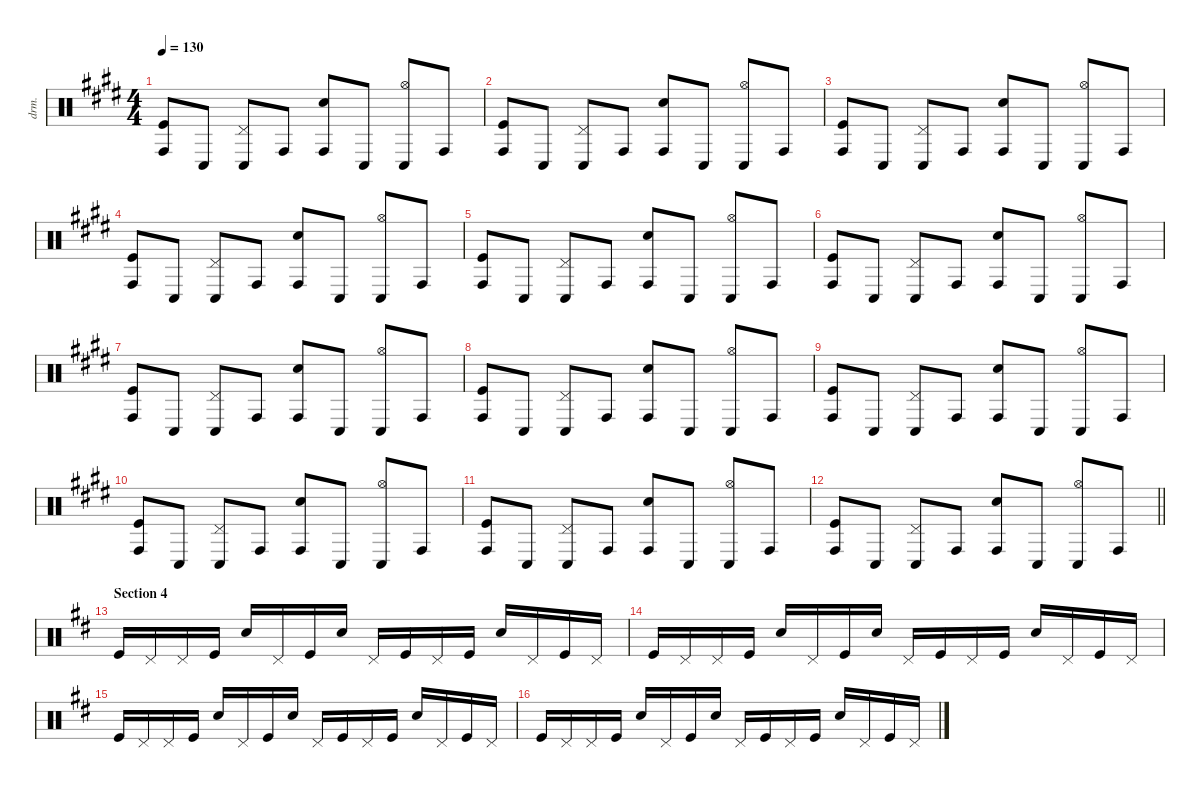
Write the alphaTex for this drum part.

\defaultSystemsLayout 4
\hideDynamics
\bracketExtendMode nobrackets
\otherSystemsTrackNameOrientation horizontal
\track ("Percussion" "drm.") {instrument percussion}
\staff {score}
\articulation defaults
\ts (4 4)
\tempo 130
\clef neutral
\ks e
("Conga high (hit)"{acc forcenatural} "Kick (hit)"{acc forcenatural}).8{dy f} "Conga low (hit)"{acc forcenatural}.8 ("Pedal Hi-Hat (hit)"{acc forcenatural} "Conga low (hit)"{acc forcenatural}).8 "Conga high (hit)"{acc forcenatural}.8 ("Conga high (hit)"{acc forcenatural} "Snare (hit) 2"{acc forcenatural}).8 "Conga low (hit)"{acc forcenatural}.8 ("Hi-Hat (open)"{acc forcenatural} "Conga low (hit)"{acc forcenatural}).8 "Conga high (hit)"{acc forcenatural}.8 |
("Conga high (hit)"{acc forcenatural} "Kick (hit)"{acc forcenatural}).8 "Conga low (hit)"{acc forcenatural}.8 ("Pedal Hi-Hat (hit)"{acc forcenatural} "Conga low (hit)"{acc forcenatural}).8 "Conga high (hit)"{acc forcenatural}.8 ("Conga high (hit)"{acc forcenatural} "Snare (hit) 2"{acc forcenatural}).8 "Conga low (hit)"{acc forcenatural}.8 ("Hi-Hat (open)"{acc forcenatural} "Conga low (hit)"{acc forcenatural}).8 "Conga high (hit)"{acc forcenatural}.8 |
("Conga high (hit)"{acc forcenatural} "Kick (hit)"{acc forcenatural}).8 "Conga low (hit)"{acc forcenatural}.8 ("Pedal Hi-Hat (hit)"{acc forcenatural} "Conga low (hit)"{acc forcenatural}).8 "Conga high (hit)"{acc forcenatural}.8 ("Conga high (hit)"{acc forcenatural} "Snare (hit) 2"{acc forcenatural}).8 "Conga low (hit)"{acc forcenatural}.8 ("Hi-Hat (open)"{acc forcenatural} "Conga low (hit)"{acc forcenatural}).8 "Conga high (hit)"{acc forcenatural}.8 |
("Conga high (hit)"{acc forcenatural} "Kick (hit)"{acc forcenatural}).8 "Conga low (hit)"{acc forcenatural}.8 ("Pedal Hi-Hat (hit)"{acc forcenatural} "Conga low (hit)"{acc forcenatural}).8 "Conga high (hit)"{acc forcenatural}.8 ("Conga high (hit)"{acc forcenatural} "Snare (hit) 2"{acc forcenatural}).8 "Conga low (hit)"{acc forcenatural}.8 ("Hi-Hat (open)"{acc forcenatural} "Conga low (hit)"{acc forcenatural}).8 "Conga high (hit)"{acc forcenatural}.8 |
("Conga high (hit)"{acc forcenatural} "Kick (hit)"{acc forcenatural}).8 "Conga low (hit)"{acc forcenatural}.8 ("Pedal Hi-Hat (hit)"{acc forcenatural} "Conga low (hit)"{acc forcenatural}).8 "Conga high (hit)"{acc forcenatural}.8 ("Conga high (hit)"{acc forcenatural} "Snare (hit) 2"{acc forcenatural}).8 "Conga low (hit)"{acc forcenatural}.8 ("Hi-Hat (open)"{acc forcenatural} "Conga low (hit)"{acc forcenatural}).8 "Conga high (hit)"{acc forcenatural}.8 |
("Conga high (hit)"{acc forcenatural} "Kick (hit)"{acc forcenatural}).8 "Conga low (hit)"{acc forcenatural}.8 ("Pedal Hi-Hat (hit)"{acc forcenatural} "Conga low (hit)"{acc forcenatural}).8 "Conga high (hit)"{acc forcenatural}.8 ("Conga high (hit)"{acc forcenatural} "Snare (hit) 2"{acc forcenatural}).8 "Conga low (hit)"{acc forcenatural}.8 ("Hi-Hat (open)"{acc forcenatural} "Conga low (hit)"{acc forcenatural}).8 "Conga high (hit)"{acc forcenatural}.8 |
("Conga high (hit)"{acc forcenatural} "Kick (hit)"{acc forcenatural}).8 "Conga low (hit)"{acc forcenatural}.8 ("Pedal Hi-Hat (hit)"{acc forcenatural} "Conga low (hit)"{acc forcenatural}).8 "Conga high (hit)"{acc forcenatural}.8 ("Conga high (hit)"{acc forcenatural} "Snare (hit) 2"{acc forcenatural}).8 "Conga low (hit)"{acc forcenatural}.8 ("Hi-Hat (open)"{acc forcenatural} "Conga low (hit)"{acc forcenatural}).8 "Conga high (hit)"{acc forcenatural}.8 |
("Conga high (hit)"{acc forcenatural} "Kick (hit)"{acc forcenatural}).8 "Conga low (hit)"{acc forcenatural}.8 ("Pedal Hi-Hat (hit)"{acc forcenatural} "Conga low (hit)"{acc forcenatural}).8 "Conga high (hit)"{acc forcenatural}.8 ("Conga high (hit)"{acc forcenatural} "Snare (hit) 2"{acc forcenatural}).8 "Conga low (hit)"{acc forcenatural}.8 ("Hi-Hat (open)"{acc forcenatural} "Conga low (hit)"{acc forcenatural}).8 "Conga high (hit)"{acc forcenatural}.8 |
("Conga high (hit)"{acc forcenatural} "Kick (hit)"{acc forcenatural}).8 "Conga low (hit)"{acc forcenatural}.8 ("Pedal Hi-Hat (hit)"{acc forcenatural} "Conga low (hit)"{acc forcenatural}).8 "Conga high (hit)"{acc forcenatural}.8 ("Conga high (hit)"{acc forcenatural} "Snare (hit) 2"{acc forcenatural}).8 "Conga low (hit)"{acc forcenatural}.8 ("Hi-Hat (open)"{acc forcenatural} "Conga low (hit)"{acc forcenatural}).8 "Conga high (hit)"{acc forcenatural}.8 |
("Conga high (hit)"{acc forcenatural} "Kick (hit)"{acc forcenatural}).8 "Conga low (hit)"{acc forcenatural}.8 ("Pedal Hi-Hat (hit)"{acc forcenatural} "Conga low (hit)"{acc forcenatural}).8 "Conga high (hit)"{acc forcenatural}.8 ("Conga high (hit)"{acc forcenatural} "Snare (hit) 2"{acc forcenatural}).8 "Conga low (hit)"{acc forcenatural}.8 ("Hi-Hat (open)"{acc forcenatural} "Conga low (hit)"{acc forcenatural}).8 "Conga high (hit)"{acc forcenatural}.8 |
("Conga high (hit)"{acc forcenatural} "Kick (hit)"{acc forcenatural}).8 "Conga low (hit)"{acc forcenatural}.8 ("Pedal Hi-Hat (hit)"{acc forcenatural} "Conga low (hit)"{acc forcenatural}).8 "Conga high (hit)"{acc forcenatural}.8 ("Conga high (hit)"{acc forcenatural} "Snare (hit) 2"{acc forcenatural}).8 "Conga low (hit)"{acc forcenatural}.8 ("Hi-Hat (open)"{acc forcenatural} "Conga low (hit)"{acc forcenatural}).8 "Conga high (hit)"{acc forcenatural}.8 |
\barLineRight lightlight
("Conga high (hit)"{acc forcenatural} "Kick (hit)"{acc forcenatural}).8 "Conga low (hit)"{acc forcenatural}.8 ("Pedal Hi-Hat (hit)"{acc forcenatural} "Conga low (hit)"{acc forcenatural}).8 "Conga high (hit)"{acc forcenatural}.8 ("Conga high (hit)"{acc forcenatural} "Snare (hit) 2"{acc forcenatural}).8 "Conga low (hit)"{acc forcenatural}.8 ("Hi-Hat (open)"{acc forcenatural} "Conga low (hit)"{acc forcenatural}).8 "Conga high (hit)"{acc forcenatural}.8 |
\section ("" "Section 4")
\ks d "Kick (hit)"{acc forcenatural}.16 "Pedal Hi-Hat (hit)"{acc forcenatural}.16 "Pedal Hi-Hat (hit)"{acc forcenatural}.16 "Kick (hit)"{acc forcenatural}.16 "Snare (hit) 2"{acc forcenatural}.16 "Pedal Hi-Hat (hit)"{acc forcenatural}.16 "Kick (hit)"{acc forcenatural}.16 "Snare (hit) 2"{acc forcenatural}.16 "Pedal Hi-Hat (hit)"{acc forcenatural}.16 "Kick (hit)"{acc forcenatural}.16 "Pedal Hi-Hat (hit)"{acc forcenatural}.16 "Kick (hit)"{acc forcenatural}.16 "Snare (hit) 2"{acc forcenatural}.16 "Pedal Hi-Hat (hit)"{acc forcenatural}.16 "Kick (hit)"{acc forcenatural}.16 "Pedal Hi-Hat (hit)"{acc forcenatural}.16
|
"Kick (hit)"{acc forcenatural}.16 "Pedal Hi-Hat (hit)"{acc forcenatural}.16 "Pedal Hi-Hat (hit)"{acc forcenatural}.16 "Kick (hit)"{acc forcenatural}.16 "Snare (hit) 2"{acc forcenatural}.16 "Pedal Hi-Hat (hit)"{acc forcenatural}.16 "Kick (hit)"{acc forcenatural}.16 "Snare (hit) 2"{acc forcenatural}.16 "Pedal Hi-Hat (hit)"{acc forcenatural}.16 "Kick (hit)"{acc forcenatural}.16 "Pedal Hi-Hat (hit)"{acc forcenatural}.16 "Kick (hit)"{acc forcenatural}.16 "Snare (hit) 2"{acc forcenatural}.16 "Pedal Hi-Hat (hit)"{acc forcenatural}.16 "Kick (hit)"{acc forcenatural}.16 "Pedal Hi-Hat (hit)"{acc forcenatural}.16 |
"Kick (hit)"{acc forcenatural}.16 "Pedal Hi-Hat (hit)"{acc forcenatural}.16 "Pedal Hi-Hat (hit)"{acc forcenatural}.16 "Kick (hit)"{acc forcenatural}.16 "Snare (hit) 2"{acc forcenatural}.16 "Pedal Hi-Hat (hit)"{acc forcenatural}.16 "Kick (hit)"{acc forcenatural}.16 "Snare (hit) 2"{acc forcenatural}.16 "Pedal Hi-Hat (hit)"{acc forcenatural}.16 "Kick (hit)"{acc forcenatural}.16 "Pedal Hi-Hat (hit)"{acc forcenatural}.16 "Kick (hit)"{acc forcenatural}.16 "Snare (hit) 2"{acc forcenatural}.16 "Pedal Hi-Hat (hit)"{acc forcenatural}.16 "Kick (hit)"{acc forcenatural}.16 "Pedal Hi-Hat (hit)"{acc forcenatural}.16 |
"Kick (hit)"{acc forcenatural}.16 "Pedal Hi-Hat (hit)"{acc forcenatural}.16 "Pedal Hi-Hat (hit)"{acc forcenatural}.16 "Kick (hit)"{acc forcenatural}.16 "Snare (hit) 2"{acc forcenatural}.16 "Pedal Hi-Hat (hit)"{acc forcenatural}.16 "Kick (hit)"{acc forcenatural}.16 "Snare (hit) 2"{acc forcenatural}.16 "Pedal Hi-Hat (hit)"{acc forcenatural}.16 "Kick (hit)"{acc forcenatural}.16 "Pedal Hi-Hat (hit)"{acc forcenatural}.16 "Kick (hit)"{acc forcenatural}.16 "Snare (hit) 2"{acc forcenatural}.16 "Pedal Hi-Hat (hit)"{acc forcenatural}.16 "Kick (hit)"{acc forcenatural}.16 "Pedal Hi-Hat (hit)"{acc forcenatural}.16
